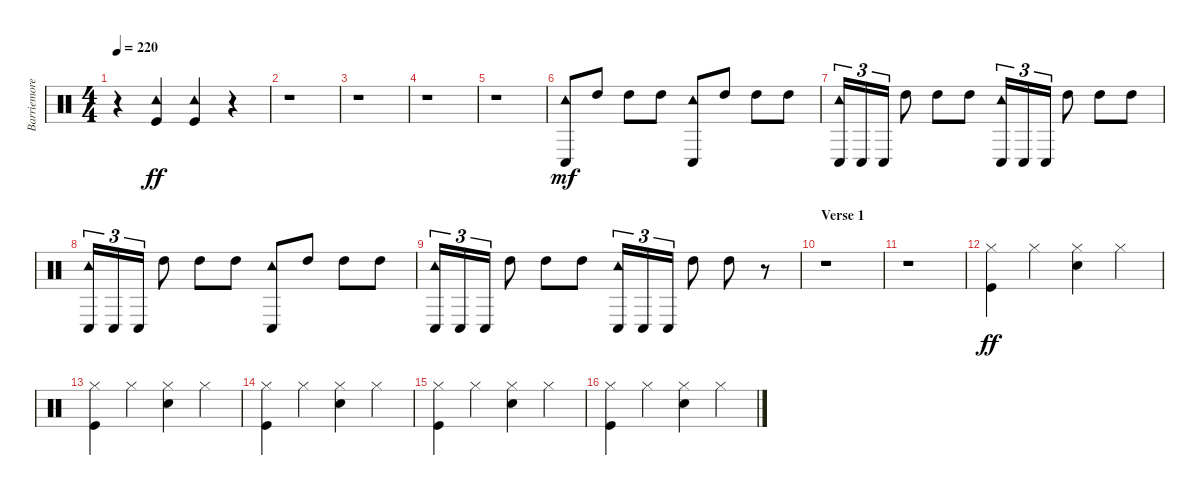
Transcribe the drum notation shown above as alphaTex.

\track ("Barriemore Barlow (Drums)" "Barriemore") {instrument percussion}
\staff {score}
\articulation defaults
\ts (4 4)
\tempo 220
\clef neutral
\ks c
r.4{dy ff} ("Tambourine (hit)" "Kick (hit)").4 ("Tambourine (hit)" "Kick (hit)").4 r.4 |
r.1 |
r.1 |
r.1 |
r.1 |
("Tambourine (hit)" "Conga low (hit)").8{dy mf} "High Tom (hit)".8 "High Tom (hit)".8 "High Tom (hit)".8 ("Tambourine (hit)" "Conga low (hit)").8 "High Tom (hit)".8 "High Tom (hit)".8 "High Tom (hit)".8 |
("Tambourine (hit)" "Conga low (hit)").16{tu (3 2)} "Conga low (hit)".16{tu (3 2)} "Conga low (hit)".16{tu (3 2)} "High Tom (hit)".8 "High Tom (hit)".8 "High Tom (hit)".8 ("Tambourine (hit)" "Conga low (hit)").16{tu (3 2)} "Conga low (hit)".16{tu (3 2)} "Conga low (hit)".16{tu (3 2)} "High Tom (hit)".8 "High Tom (hit)".8 "High Tom (hit)".8 |
("Tambourine (hit)" "Conga low (hit)").16{tu (3 2)} "Conga low (hit)".16{tu (3 2)} "Conga low (hit)".16{tu (3 2)} "High Tom (hit)".8 "High Tom (hit)".8 "High Tom (hit)".8 ("Tambourine (hit)" "Conga low (hit)").8 "High Tom (hit)".8 "High Tom (hit)".8 "High Tom (hit)".8 |
("Tambourine (hit)" "Conga low (hit)").16{tu (3 2)} "Conga low (hit)".16{tu (3 2)} "Conga low (hit)".16{tu (3 2)} "High Tom (hit)".8 "High Tom (hit)".8 "High Tom (hit)".8 ("Tambourine (hit)" "Conga low (hit)").16{tu (3 2)} "Conga low (hit)".16{tu (3 2)} "Conga low (hit)".16{tu (3 2)} "High Tom (hit)".8 "High Tom (hit)".8 r.8 |
\section ("" "Verse 1")
r.1 |
r.1 |
("Kick (hit)" "Hi-Hat (closed)").4{dy ff} "Hi-Hat (closed)".4 ("Snare (hit) 2" "Hi-Hat (closed)").4 "Hi-Hat (closed)".4 |
("Kick (hit)" "Hi-Hat (closed)").4 "Hi-Hat (closed)".4 ("Snare (hit) 2" "Hi-Hat (closed)").4 "Hi-Hat (closed)".4 |
("Kick (hit)" "Hi-Hat (closed)").4 "Hi-Hat (closed)".4 ("Snare (hit) 2" "Hi-Hat (closed)").4 "Hi-Hat (closed)".4 |
("Kick (hit)" "Hi-Hat (closed)").4 "Hi-Hat (closed)".4 ("Snare (hit) 2" "Hi-Hat (closed)").4 "Hi-Hat (closed)".4 |
("Kick (hit)" "Hi-Hat (closed)").4 "Hi-Hat (closed)".4 ("Snare (hit) 2" "Hi-Hat (closed)").4 "Hi-Hat (closed)".4
